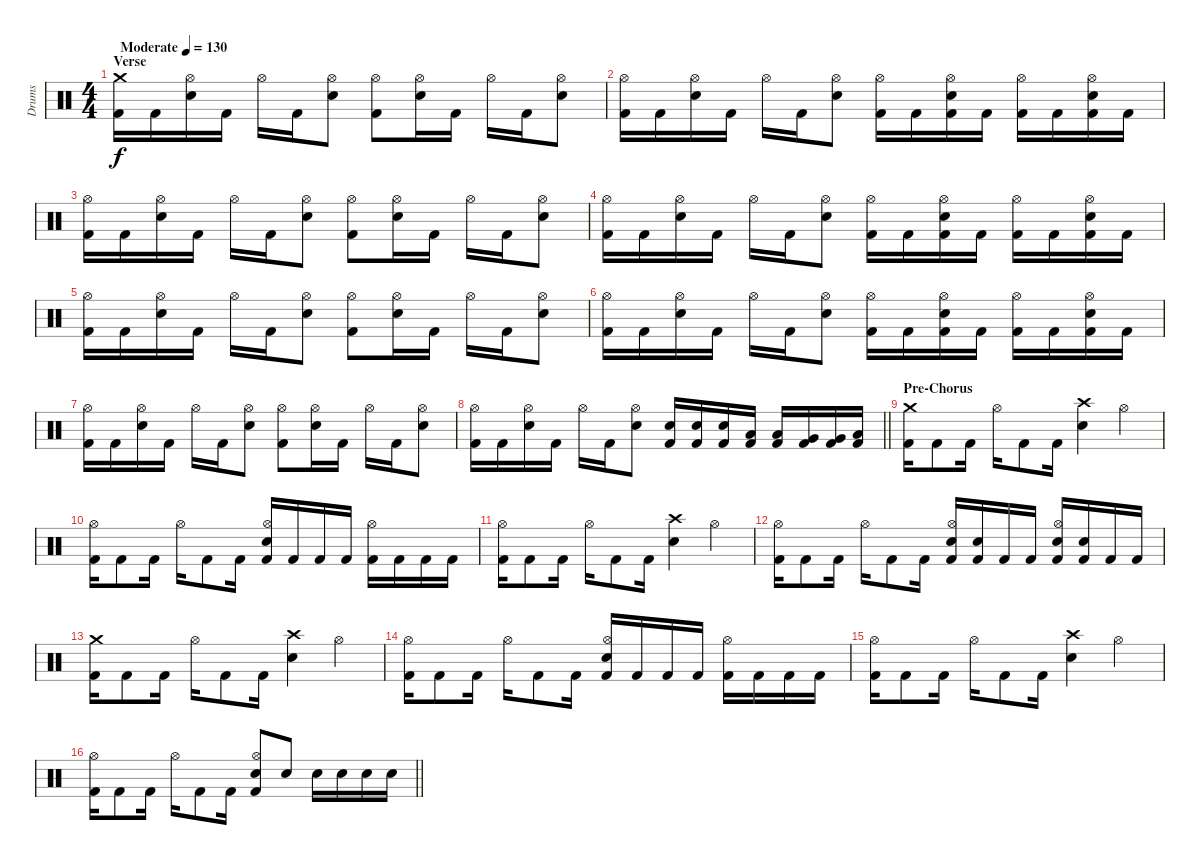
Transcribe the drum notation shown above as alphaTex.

\track ("Drums" "Drums") {instrument percussion}
\staff {score}
\articulation defaults
\ts (4 4)
\section ("" "Verse")
\tempo (130 "Moderate")
\clef neutral
\ks c
("Crash medium (hit)" "Kick (hit) 2").16{dy f} "Kick (hit) 2".16 ("Hi-Hat (open)" "Electric Snare (hit)").16 "Kick (hit) 2".16 "Hi-Hat (open)".16 "Kick (hit) 2".16 ("Hi-Hat (open)" "Electric Snare (hit)").8 ("Hi-Hat (open)" "Kick (hit) 2").8 ("Hi-Hat (open)" "Electric Snare (hit)").16 "Kick (hit) 2".16 "Hi-Hat (open)".16 "Kick (hit) 2".16 ("Hi-Hat (open)" "Electric Snare (hit)").8 |
("Hi-Hat (open)" "Kick (hit) 2").16 "Kick (hit) 2".16 ("Hi-Hat (open)" "Electric Snare (hit)").16 "Kick (hit) 2".16 "Hi-Hat (open)".16 "Kick (hit) 2".16 ("Hi-Hat (open)" "Electric Snare (hit)").8 ("Hi-Hat (open)" "Kick (hit) 2").16 "Kick (hit) 2".16 ("Hi-Hat (open)" "Electric Snare (hit)" "Kick (hit) 2").16 "Kick (hit) 2".16 ("Hi-Hat (open)" "Kick (hit) 2").16 "Kick (hit) 2".16 ("Hi-Hat (open)" "Electric Snare (hit)" "Kick (hit) 2").16 "Kick (hit) 2".16 |
("Hi-Hat (open)" "Kick (hit) 2").16 "Kick (hit) 2".16 ("Hi-Hat (open)" "Electric Snare (hit)").16 "Kick (hit) 2".16 "Hi-Hat (open)".16 "Kick (hit) 2".16 ("Hi-Hat (open)" "Electric Snare (hit)").8 ("Hi-Hat (open)" "Kick (hit) 2").8 ("Hi-Hat (open)" "Electric Snare (hit)").16 "Kick (hit) 2".16 "Hi-Hat (open)".16 "Kick (hit) 2".16 ("Hi-Hat (open)" "Electric Snare (hit)").8 |
("Hi-Hat (open)" "Kick (hit) 2").16 "Kick (hit) 2".16 ("Hi-Hat (open)" "Electric Snare (hit)").16 "Kick (hit) 2".16 "Hi-Hat (open)".16 "Kick (hit) 2".16 ("Hi-Hat (open)" "Electric Snare (hit)").8 ("Hi-Hat (open)" "Kick (hit) 2").16 "Kick (hit) 2".16 ("Hi-Hat (open)" "Electric Snare (hit)" "Kick (hit) 2").16 "Kick (hit) 2".16 ("Hi-Hat (open)" "Kick (hit) 2").16 "Kick (hit) 2".16 ("Hi-Hat (open)" "Electric Snare (hit)" "Kick (hit) 2").16 "Kick (hit) 2".16 |
("Hi-Hat (open)" "Kick (hit) 2").16 "Kick (hit) 2".16 ("Hi-Hat (open)" "Electric Snare (hit)").16 "Kick (hit) 2".16 "Hi-Hat (open)".16 "Kick (hit) 2".16 ("Hi-Hat (open)" "Electric Snare (hit)").8 ("Hi-Hat (open)" "Kick (hit) 2").8 ("Hi-Hat (open)" "Electric Snare (hit)").16 "Kick (hit) 2".16 "Hi-Hat (open)".16 "Kick (hit) 2".16 ("Hi-Hat (open)" "Electric Snare (hit)").8 |
("Hi-Hat (open)" "Kick (hit) 2").16 "Kick (hit) 2".16 ("Hi-Hat (open)" "Electric Snare (hit)").16 "Kick (hit) 2".16 "Hi-Hat (open)".16 "Kick (hit) 2".16 ("Hi-Hat (open)" "Electric Snare (hit)").8 ("Hi-Hat (open)" "Kick (hit) 2").16 "Kick (hit) 2".16 ("Hi-Hat (open)" "Electric Snare (hit)" "Kick (hit) 2").16 "Kick (hit) 2".16 ("Hi-Hat (open)" "Kick (hit) 2").16 "Kick (hit) 2".16 ("Hi-Hat (open)" "Electric Snare (hit)" "Kick (hit) 2").16 "Kick (hit) 2".16 |
("Hi-Hat (open)" "Kick (hit) 2").16 "Kick (hit) 2".16 ("Hi-Hat (open)" "Electric Snare (hit)").16 "Kick (hit) 2".16 "Hi-Hat (open)".16 "Kick (hit) 2".16 ("Hi-Hat (open)" "Electric Snare (hit)").8 ("Hi-Hat (open)" "Kick (hit) 2").8 ("Hi-Hat (open)" "Electric Snare (hit)").16 "Kick (hit) 2".16 "Hi-Hat (open)".16 "Kick (hit) 2".16 ("Hi-Hat (open)" "Electric Snare (hit)").8 |
\barLineRight lightlight
("Hi-Hat (open)" "Kick (hit) 2").16 "Kick (hit) 2".16 ("Hi-Hat (open)" "Electric Snare (hit)").16 "Kick (hit) 2".16 "Hi-Hat (open)".16 "Kick (hit) 2".16 ("Hi-Hat (open)" "Electric Snare (hit)").8 ("Electric Snare (hit)" "Kick (hit) 2").16 ("Electric Snare (hit)" "Kick (hit) 2").16 ("Electric Snare (hit)" "Kick (hit) 2").16 ("Low Tom (hit)" "Kick (hit) 2").16 ("Low Tom (hit)" "Kick (hit) 2").16 ("Very Low Tom (hit)" "Kick (hit) 2").16 ("Very Low Tom (hit)" "Kick (hit) 2").16 ("Low Floor Tom (hit)" "Kick (hit) 2").16 |
\section ("" "Pre-Chorus")
("Crash medium (hit)" "Kick (hit) 2").16 "Kick (hit) 2".8 "Kick (hit) 2".16 "Hi-Hat (open)".16 "Kick (hit) 2".8 "Kick (hit) 2".16 ("Crash high (hit)" "Electric Snare (hit)").4 "Hi-Hat (open)".4 |
("Hi-Hat (open)" "Kick (hit) 2").16 "Kick (hit) 2".8 "Kick (hit) 2".16 "Hi-Hat (open)".16 "Kick (hit) 2".8 "Kick (hit) 2".16 ("Hi-Hat (open)" "Electric Snare (hit)" "Kick (hit) 2").16 "Kick (hit) 2".16 "Kick (hit) 2".16 "Kick (hit) 2".16 ("Hi-Hat (open)" "Kick (hit) 2").16 "Kick (hit) 2".16 "Kick (hit) 2".16 "Kick (hit) 2".16 |
("Hi-Hat (open)" "Kick (hit) 2").16 "Kick (hit) 2".8 "Kick (hit) 2".16 "Hi-Hat (open)".16 "Kick (hit) 2".8 "Kick (hit) 2".16 ("Crash high (hit)" "Electric Snare (hit)").4 "Hi-Hat (open)".4 |
("Hi-Hat (open)" "Kick (hit) 2").16 "Kick (hit) 2".8 "Kick (hit) 2".16 "Hi-Hat (open)".16 "Kick (hit) 2".8 "Kick (hit) 2".16 ("Hi-Hat (open)" "Electric Snare (hit)" "Kick (hit) 2").16 ("Electric Snare (hit)" "Kick (hit) 2").16 "Kick (hit) 2".16 "Kick (hit) 2".16 ("Hi-Hat (open)" "Electric Snare (hit)" "Kick (hit) 2").16 ("Electric Snare (hit)" "Kick (hit) 2").16 "Kick (hit) 2".16 "Kick (hit) 2".16 |
("Crash medium (hit)" "Kick (hit) 2").16 "Kick (hit) 2".8 "Kick (hit) 2".16 "Hi-Hat (open)".16 "Kick (hit) 2".8 "Kick (hit) 2".16 ("Crash high (hit)" "Electric Snare (hit)").4 "Hi-Hat (open)".4 |
("Hi-Hat (open)" "Kick (hit) 2").16 "Kick (hit) 2".8 "Kick (hit) 2".16 "Hi-Hat (open)".16 "Kick (hit) 2".8 "Kick (hit) 2".16 ("Hi-Hat (open)" "Electric Snare (hit)" "Kick (hit) 2").16 "Kick (hit) 2".16 "Kick (hit) 2".16 "Kick (hit) 2".16 ("Hi-Hat (open)" "Kick (hit) 2").16 "Kick (hit) 2".16 "Kick (hit) 2".16 "Kick (hit) 2".16 |
("Hi-Hat (open)" "Kick (hit) 2").16 "Kick (hit) 2".8 "Kick (hit) 2".16 "Hi-Hat (open)".16 "Kick (hit) 2".8 "Kick (hit) 2".16 ("Crash high (hit)" "Electric Snare (hit)").4 "Hi-Hat (open)".4 |
\barLineRight lightlight
("Hi-Hat (open)" "Kick (hit) 2").16 "Kick (hit) 2".8 "Kick (hit) 2".16 "Hi-Hat (open)".16 "Kick (hit) 2".8 "Kick (hit) 2".16 ("Hi-Hat (open)" "Electric Snare (hit)" "Kick (hit) 2").8 "Electric Snare (hit)".8 "Electric Snare (hit)".16 "Electric Snare (hit)".16 "Electric Snare (hit)".16 "Electric Snare (hit)".16
